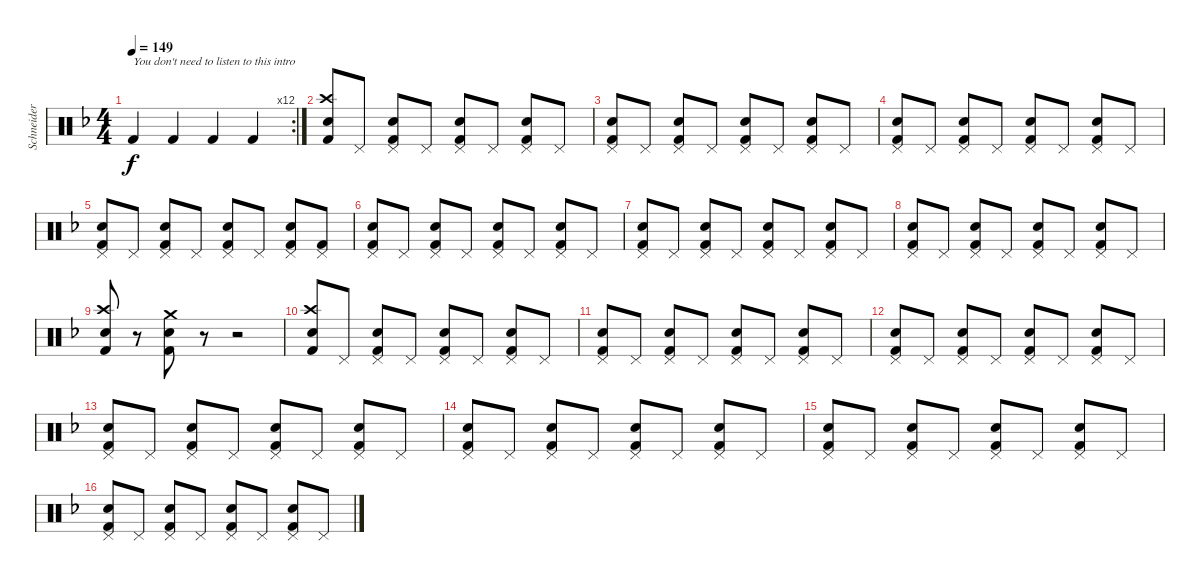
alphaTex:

\track ("Schneider" "Schneider") {instrument percussion}
\staff {score}
\articulation defaults
\rc 12
\ts (4 4)
\tempo 149
\clef neutral
\ks dminor "Kick (hit) 2".4{txt "You don't need to listen to this intro" dy f} "Kick (hit) 2".4 "Kick (hit) 2".4 "Kick (hit) 2".4
|
("Crash high (hit)" "Snare (hit) 2" "Kick (hit) 2").8 "Pedal Hi-Hat (hit)".8 ("Pedal Hi-Hat (hit)" "Snare (hit) 2" "Kick (hit) 2").8 "Pedal Hi-Hat (hit)".8 ("Pedal Hi-Hat (hit)" "Snare (hit) 2" "Kick (hit) 2").8 "Pedal Hi-Hat (hit)".8 ("Pedal Hi-Hat (hit)" "Snare (hit) 2" "Kick (hit) 2").8 "Pedal Hi-Hat (hit)".8 |
("Pedal Hi-Hat (hit)" "Snare (hit) 2" "Kick (hit) 2").8 "Pedal Hi-Hat (hit)".8 ("Pedal Hi-Hat (hit)" "Snare (hit) 2" "Kick (hit) 2").8 "Pedal Hi-Hat (hit)".8 ("Pedal Hi-Hat (hit)" "Snare (hit) 2" "Kick (hit) 2").8 "Pedal Hi-Hat (hit)".8 ("Pedal Hi-Hat (hit)" "Snare (hit) 2" "Kick (hit) 2").8 "Pedal Hi-Hat (hit)".8 |
("Pedal Hi-Hat (hit)" "Snare (hit) 2" "Kick (hit) 2").8 "Pedal Hi-Hat (hit)".8 ("Pedal Hi-Hat (hit)" "Snare (hit) 2" "Kick (hit) 2").8 "Pedal Hi-Hat (hit)".8 ("Pedal Hi-Hat (hit)" "Snare (hit) 2" "Kick (hit) 2").8 "Pedal Hi-Hat (hit)".8 ("Pedal Hi-Hat (hit)" "Snare (hit) 2" "Kick (hit) 2").8 "Pedal Hi-Hat (hit)".8 |
("Pedal Hi-Hat (hit)" "Snare (hit) 2" "Kick (hit) 2").8 "Pedal Hi-Hat (hit)".8 ("Pedal Hi-Hat (hit)" "Snare (hit) 2" "Kick (hit) 2").8 "Pedal Hi-Hat (hit)".8 ("Pedal Hi-Hat (hit)" "Snare (hit) 2" "Kick (hit) 2").8 "Pedal Hi-Hat (hit)".8 ("Pedal Hi-Hat (hit)" "Snare (hit) 2" "Kick (hit) 2").8 ("Pedal Hi-Hat (hit)" "Kick (hit) 2").8 |
("Pedal Hi-Hat (hit)" "Snare (hit) 2" "Kick (hit) 2").8 "Pedal Hi-Hat (hit)".8 ("Pedal Hi-Hat (hit)" "Snare (hit) 2" "Kick (hit) 2").8 "Pedal Hi-Hat (hit)".8 ("Pedal Hi-Hat (hit)" "Snare (hit) 2" "Kick (hit) 2").8 "Pedal Hi-Hat (hit)".8 ("Pedal Hi-Hat (hit)" "Snare (hit) 2" "Kick (hit) 2").8 "Pedal Hi-Hat (hit)".8 |
("Pedal Hi-Hat (hit)" "Snare (hit) 2" "Kick (hit) 2").8 "Pedal Hi-Hat (hit)".8 ("Pedal Hi-Hat (hit)" "Snare (hit) 2" "Kick (hit) 2").8 "Pedal Hi-Hat (hit)".8 ("Pedal Hi-Hat (hit)" "Snare (hit) 2" "Kick (hit) 2").8 "Pedal Hi-Hat (hit)".8 ("Pedal Hi-Hat (hit)" "Snare (hit) 2" "Kick (hit) 2").8 "Pedal Hi-Hat (hit)".8 |
("Pedal Hi-Hat (hit)" "Snare (hit) 2" "Kick (hit) 2").8 "Pedal Hi-Hat (hit)".8 ("Pedal Hi-Hat (hit)" "Snare (hit) 2" "Kick (hit) 2").8 "Pedal Hi-Hat (hit)".8 ("Pedal Hi-Hat (hit)" "Snare (hit) 2" "Kick (hit) 2").8 "Pedal Hi-Hat (hit)".8 ("Pedal Hi-Hat (hit)" "Snare (hit) 2" "Kick (hit) 2").8 "Pedal Hi-Hat (hit)".8 |
("Crash high (hit)" "Snare (hit) 2" "Kick (hit) 2").8 r.8 ("Crash medium (hit)" "Snare (hit) 2" "Kick (hit) 2").8 r.8 r.2 |
("Crash high (hit)" "Snare (hit) 2" "Kick (hit) 2").8 "Pedal Hi-Hat (hit)".8 ("Pedal Hi-Hat (hit)" "Snare (hit) 2" "Kick (hit) 2").8 "Pedal Hi-Hat (hit)".8 ("Pedal Hi-Hat (hit)" "Snare (hit) 2" "Kick (hit) 2").8 "Pedal Hi-Hat (hit)".8 ("Pedal Hi-Hat (hit)" "Snare (hit) 2" "Kick (hit) 2").8 "Pedal Hi-Hat (hit)".8 |
("Pedal Hi-Hat (hit)" "Snare (hit) 2" "Kick (hit) 2").8 "Pedal Hi-Hat (hit)".8 ("Pedal Hi-Hat (hit)" "Snare (hit) 2" "Kick (hit) 2").8 "Pedal Hi-Hat (hit)".8 ("Pedal Hi-Hat (hit)" "Snare (hit) 2" "Kick (hit) 2").8 "Pedal Hi-Hat (hit)".8 ("Pedal Hi-Hat (hit)" "Snare (hit) 2" "Kick (hit) 2").8 "Pedal Hi-Hat (hit)".8 |
("Pedal Hi-Hat (hit)" "Snare (hit) 2" "Kick (hit) 2").8 "Pedal Hi-Hat (hit)".8 ("Pedal Hi-Hat (hit)" "Snare (hit) 2" "Kick (hit) 2").8 "Pedal Hi-Hat (hit)".8 ("Pedal Hi-Hat (hit)" "Snare (hit) 2" "Kick (hit) 2").8 "Pedal Hi-Hat (hit)".8 ("Pedal Hi-Hat (hit)" "Snare (hit) 2" "Kick (hit) 2").8 "Pedal Hi-Hat (hit)".8 |
("Pedal Hi-Hat (hit)" "Snare (hit) 2" "Kick (hit) 2").8 "Pedal Hi-Hat (hit)".8 ("Pedal Hi-Hat (hit)" "Snare (hit) 2" "Kick (hit) 2").8 "Pedal Hi-Hat (hit)".8 ("Pedal Hi-Hat (hit)" "Snare (hit) 2" "Kick (hit) 2").8 "Pedal Hi-Hat (hit)".8 ("Pedal Hi-Hat (hit)" "Snare (hit) 2" "Kick (hit) 2").8 "Pedal Hi-Hat (hit)".8 |
("Pedal Hi-Hat (hit)" "Snare (hit) 2" "Kick (hit) 2").8 "Pedal Hi-Hat (hit)".8 ("Pedal Hi-Hat (hit)" "Snare (hit) 2" "Kick (hit) 2").8 "Pedal Hi-Hat (hit)".8 ("Pedal Hi-Hat (hit)" "Snare (hit) 2" "Kick (hit) 2").8 "Pedal Hi-Hat (hit)".8 ("Pedal Hi-Hat (hit)" "Snare (hit) 2" "Kick (hit) 2").8 "Pedal Hi-Hat (hit)".8 |
("Pedal Hi-Hat (hit)" "Snare (hit) 2" "Kick (hit) 2").8 "Pedal Hi-Hat (hit)".8 ("Pedal Hi-Hat (hit)" "Snare (hit) 2" "Kick (hit) 2").8 "Pedal Hi-Hat (hit)".8 ("Pedal Hi-Hat (hit)" "Snare (hit) 2" "Kick (hit) 2").8 "Pedal Hi-Hat (hit)".8 ("Pedal Hi-Hat (hit)" "Snare (hit) 2" "Kick (hit) 2").8 "Pedal Hi-Hat (hit)".8 |
("Pedal Hi-Hat (hit)" "Snare (hit) 2" "Kick (hit) 2").8 "Pedal Hi-Hat (hit)".8 ("Pedal Hi-Hat (hit)" "Snare (hit) 2" "Kick (hit) 2").8 "Pedal Hi-Hat (hit)".8 ("Pedal Hi-Hat (hit)" "Snare (hit) 2" "Kick (hit) 2").8 "Pedal Hi-Hat (hit)".8 ("Pedal Hi-Hat (hit)" "Snare (hit) 2" "Kick (hit) 2").8 "Pedal Hi-Hat (hit)".8
